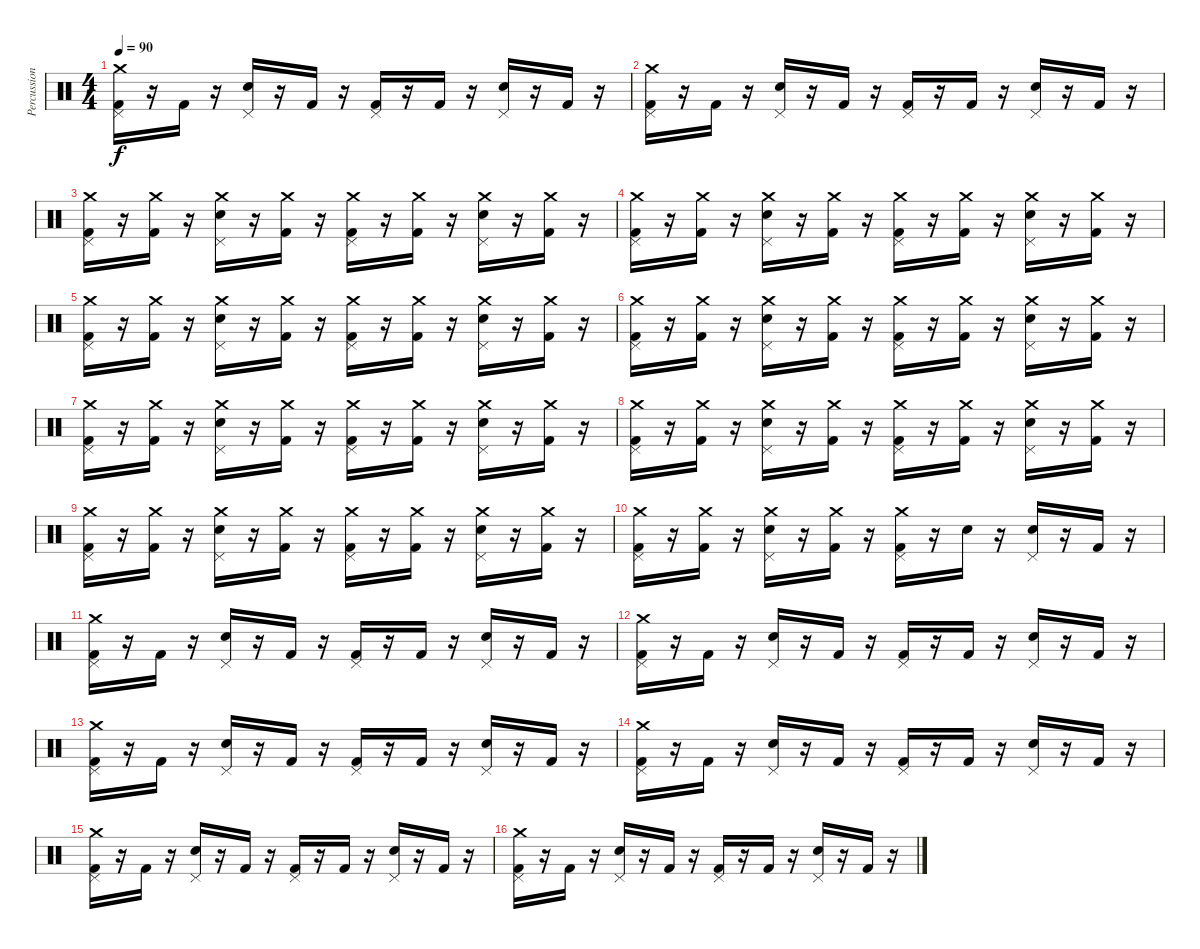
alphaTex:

\track ("Percussion" "Percussion") {instrument percussion}
\staff {score}
\articulation defaults
\ts (4 4)
\tempo 90
\clef neutral
\ks c
("Crash medium (hit)" "Pedal Hi-Hat (hit)" "Kick (hit) 2").16{dy f} r.16 "Kick (hit) 2".16 r.16 ("Pedal Hi-Hat (hit)" "Snare (hit) 2").16 r.16 "Kick (hit) 2".16 r.16 ("Pedal Hi-Hat (hit)" "Kick (hit) 2").16 r.16 "Kick (hit) 2".16 r.16 ("Pedal Hi-Hat (hit)" "Snare (hit) 2").16 r.16 "Kick (hit) 2".16 r.16 |
("Crash medium (hit)" "Pedal Hi-Hat (hit)" "Kick (hit) 2").16 r.16 "Kick (hit) 2".16 r.16 ("Pedal Hi-Hat (hit)" "Snare (hit) 2").16 r.16 "Kick (hit) 2".16 r.16 ("Pedal Hi-Hat (hit)" "Kick (hit) 2").16 r.16 "Kick (hit) 2".16 r.16 ("Pedal Hi-Hat (hit)" "Snare (hit) 2").16 r.16 "Kick (hit) 2".16 r.16 |
("Crash medium (hit)" "Pedal Hi-Hat (hit)" "Kick (hit) 2").16 r.16 ("Crash medium (hit)" "Kick (hit) 2").16 r.16 ("Crash medium (hit)" "Pedal Hi-Hat (hit)" "Snare (hit) 2").16 r.16 ("Crash medium (hit)" "Kick (hit) 2").16 r.16 ("Crash medium (hit)" "Pedal Hi-Hat (hit)" "Kick (hit) 2").16 r.16 ("Crash medium (hit)" "Kick (hit) 2").16 r.16 ("Crash medium (hit)" "Pedal Hi-Hat (hit)" "Snare (hit) 2").16 r.16 ("Crash medium (hit)" "Kick (hit) 2").16 r.16 |
("Crash medium (hit)" "Pedal Hi-Hat (hit)" "Kick (hit) 2").16 r.16 ("Crash medium (hit)" "Kick (hit) 2").16 r.16 ("Crash medium (hit)" "Pedal Hi-Hat (hit)" "Snare (hit) 2").16 r.16 ("Crash medium (hit)" "Kick (hit) 2").16 r.16 ("Crash medium (hit)" "Pedal Hi-Hat (hit)" "Kick (hit) 2").16 r.16 ("Crash medium (hit)" "Kick (hit) 2").16 r.16 ("Crash medium (hit)" "Pedal Hi-Hat (hit)" "Snare (hit) 2").16 r.16 ("Crash medium (hit)" "Kick (hit) 2").16 r.16 |
("Crash medium (hit)" "Pedal Hi-Hat (hit)" "Kick (hit) 2").16 r.16 ("Crash medium (hit)" "Kick (hit) 2").16 r.16 ("Crash medium (hit)" "Pedal Hi-Hat (hit)" "Snare (hit) 2").16 r.16 ("Crash medium (hit)" "Kick (hit) 2").16 r.16 ("Crash medium (hit)" "Pedal Hi-Hat (hit)" "Kick (hit) 2").16 r.16 ("Crash medium (hit)" "Kick (hit) 2").16 r.16 ("Crash medium (hit)" "Pedal Hi-Hat (hit)" "Snare (hit) 2").16 r.16 ("Crash medium (hit)" "Kick (hit) 2").16 r.16 |
("Crash medium (hit)" "Pedal Hi-Hat (hit)" "Kick (hit) 2").16 r.16 ("Crash medium (hit)" "Kick (hit) 2").16 r.16 ("Crash medium (hit)" "Pedal Hi-Hat (hit)" "Snare (hit) 2").16 r.16 ("Crash medium (hit)" "Kick (hit) 2").16 r.16 ("Crash medium (hit)" "Pedal Hi-Hat (hit)" "Kick (hit) 2").16 r.16 ("Crash medium (hit)" "Kick (hit) 2").16 r.16 ("Crash medium (hit)" "Pedal Hi-Hat (hit)" "Snare (hit) 2").16 r.16 ("Crash medium (hit)" "Kick (hit) 2").16 r.16 |
("Crash medium (hit)" "Pedal Hi-Hat (hit)" "Kick (hit) 2").16 r.16 ("Crash medium (hit)" "Kick (hit) 2").16 r.16 ("Crash medium (hit)" "Pedal Hi-Hat (hit)" "Snare (hit) 2").16 r.16 ("Crash medium (hit)" "Kick (hit) 2").16 r.16 ("Crash medium (hit)" "Pedal Hi-Hat (hit)" "Kick (hit) 2").16 r.16 ("Crash medium (hit)" "Kick (hit) 2").16 r.16 ("Crash medium (hit)" "Pedal Hi-Hat (hit)" "Snare (hit) 2").16 r.16 ("Crash medium (hit)" "Kick (hit) 2").16 r.16 |
("Crash medium (hit)" "Pedal Hi-Hat (hit)" "Kick (hit) 2").16 r.16 ("Crash medium (hit)" "Kick (hit) 2").16 r.16 ("Crash medium (hit)" "Pedal Hi-Hat (hit)" "Snare (hit) 2").16 r.16 ("Crash medium (hit)" "Kick (hit) 2").16 r.16 ("Crash medium (hit)" "Pedal Hi-Hat (hit)" "Kick (hit) 2").16 r.16 ("Crash medium (hit)" "Kick (hit) 2").16 r.16 ("Crash medium (hit)" "Pedal Hi-Hat (hit)" "Snare (hit) 2").16 r.16 ("Crash medium (hit)" "Kick (hit) 2").16 r.16 |
("Crash medium (hit)" "Pedal Hi-Hat (hit)" "Kick (hit) 2").16 r.16 ("Crash medium (hit)" "Kick (hit) 2").16 r.16 ("Crash medium (hit)" "Pedal Hi-Hat (hit)" "Snare (hit) 2").16 r.16 ("Crash medium (hit)" "Kick (hit) 2").16 r.16 ("Crash medium (hit)" "Pedal Hi-Hat (hit)" "Kick (hit) 2").16 r.16 ("Crash medium (hit)" "Kick (hit) 2").16 r.16 ("Crash medium (hit)" "Pedal Hi-Hat (hit)" "Snare (hit) 2").16 r.16 ("Crash medium (hit)" "Kick (hit) 2").16 r.16 |
("Crash medium (hit)" "Pedal Hi-Hat (hit)" "Kick (hit) 2").16 r.16 ("Crash medium (hit)" "Kick (hit) 2").16 r.16 ("Crash medium (hit)" "Pedal Hi-Hat (hit)" "Snare (hit) 2").16 r.16 ("Crash medium (hit)" "Kick (hit) 2").16 r.16 ("Crash medium (hit)" "Pedal Hi-Hat (hit)" "Kick (hit) 2").16 r.16 "Snare (hit) 2".16 r.16 ("Pedal Hi-Hat (hit)" "Snare (hit) 2").16 r.16 "Kick (hit) 2".16 r.16 |
("Crash medium (hit)" "Pedal Hi-Hat (hit)" "Kick (hit) 2").16 r.16 "Kick (hit) 2".16 r.16 ("Pedal Hi-Hat (hit)" "Snare (hit) 2").16 r.16 "Kick (hit) 2".16 r.16 ("Pedal Hi-Hat (hit)" "Kick (hit) 2").16 r.16 "Kick (hit) 2".16 r.16 ("Pedal Hi-Hat (hit)" "Snare (hit) 2").16 r.16 "Kick (hit) 2".16 r.16 |
("Crash medium (hit)" "Pedal Hi-Hat (hit)" "Kick (hit) 2").16 r.16 "Kick (hit) 2".16 r.16 ("Pedal Hi-Hat (hit)" "Snare (hit) 2").16 r.16 "Kick (hit) 2".16 r.16 ("Pedal Hi-Hat (hit)" "Kick (hit) 2").16 r.16 "Kick (hit) 2".16 r.16 ("Pedal Hi-Hat (hit)" "Snare (hit) 2").16 r.16 "Kick (hit) 2".16 r.16 |
("Crash medium (hit)" "Pedal Hi-Hat (hit)" "Kick (hit) 2").16 r.16 "Kick (hit) 2".16 r.16 ("Pedal Hi-Hat (hit)" "Snare (hit) 2").16 r.16 "Kick (hit) 2".16 r.16 ("Pedal Hi-Hat (hit)" "Kick (hit) 2").16 r.16 "Kick (hit) 2".16 r.16 ("Pedal Hi-Hat (hit)" "Snare (hit) 2").16 r.16 "Kick (hit) 2".16 r.16 |
("Crash medium (hit)" "Pedal Hi-Hat (hit)" "Kick (hit) 2").16 r.16 "Kick (hit) 2".16 r.16 ("Pedal Hi-Hat (hit)" "Snare (hit) 2").16 r.16 "Kick (hit) 2".16 r.16 ("Pedal Hi-Hat (hit)" "Kick (hit) 2").16 r.16 "Kick (hit) 2".16 r.16 ("Pedal Hi-Hat (hit)" "Snare (hit) 2").16 r.16 "Kick (hit) 2".16 r.16 |
("Crash medium (hit)" "Pedal Hi-Hat (hit)" "Kick (hit) 2").16 r.16 "Kick (hit) 2".16 r.16 ("Pedal Hi-Hat (hit)" "Snare (hit) 2").16 r.16 "Kick (hit) 2".16 r.16 ("Pedal Hi-Hat (hit)" "Kick (hit) 2").16 r.16 "Kick (hit) 2".16 r.16 ("Pedal Hi-Hat (hit)" "Snare (hit) 2").16 r.16 "Kick (hit) 2".16 r.16 |
("Crash medium (hit)" "Pedal Hi-Hat (hit)" "Kick (hit) 2").16 r.16 "Kick (hit) 2".16 r.16 ("Pedal Hi-Hat (hit)" "Snare (hit) 2").16 r.16 "Kick (hit) 2".16 r.16 ("Pedal Hi-Hat (hit)" "Kick (hit) 2").16 r.16 "Kick (hit) 2".16 r.16 ("Pedal Hi-Hat (hit)" "Snare (hit) 2").16 r.16 "Kick (hit) 2".16 r.16
